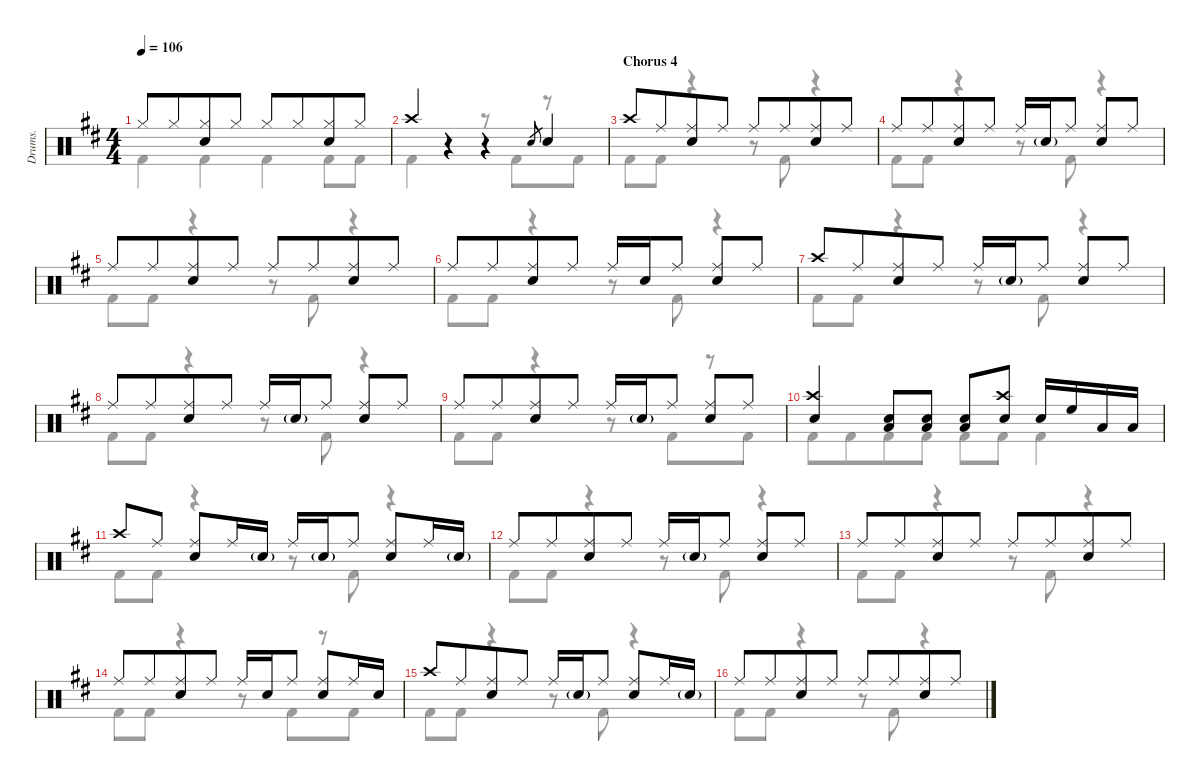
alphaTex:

\defaultSystemsLayout 4
\hideDynamics
\track ("Drumkit" "Drums.") {defaultSystemsLayout 4 instrument percussion}
\staff {score}
\articulation defaults
\voice
\ts (4 4)
\tempo 106
\clef neutral
\ks d "Hi-Hat (closed)"{acc forcenatural}.8{dy mf} "Hi-Hat (closed)"{acc forcenatural}.8{beam merge}
("Hi-Hat (closed)"{acc forcenatural} "Snare (hit) 2"{acc forcenatural}).8 "Hi-Hat (closed)"{acc forcenatural}.8 "Hi-Hat (closed)"{acc forcenatural}.8 "Hi-Hat (closed)"{acc forcenatural}.8{beam merge} ("Hi-Hat (closed)"{acc forcenatural} "Snare (hit) 2"{acc forcenatural}).8 "Hi-Hat (closed)"{acc forcenatural}.8 |
"Crash high (hit)"{acc forcenatural}.4 r.4 r.4 "Snare (hit) 2"{acc forcenatural}.8{gr} "Snare (hit) 2"{acc forcenatural}.4 |
\section ("" "Chorus 4")
"Crash high (hit)"{acc forcenatural}.8 "Ride (middle)"{acc forcenatural}.8{beam merge} ("Ride (middle)"{acc forcenatural} "Snare (hit) 2"{acc forcenatural}).8 "Ride (middle)"{acc forcenatural}.8 "Ride (middle)"{acc forcenatural}.8 "Ride (middle)"{acc forcenatural}.8{beam merge} ("Ride (middle)"{acc forcenatural} "Snare (hit) 2"{acc forcenatural}).8 "Ride (middle)"{acc forcenatural}.8 |
"Ride (middle)"{acc forcenatural}.8 "Ride (middle)"{acc forcenatural}.8{beam merge} ("Ride (middle)"{acc forcenatural} "Snare (hit) 2"{acc forcenatural}).8 "Ride (middle)"{acc forcenatural}.8 "Ride (middle)"{acc forcenatural}.16 "Snare (hit) 2"{g acc forcenatural}.16 "Ride (middle)"{acc forcenatural}.8 ("Ride (middle)"{acc forcenatural} "Snare (hit) 2"{acc forcenatural}).8 "Ride (middle)"{acc forcenatural}.8 |
"Ride (middle)"{acc forcenatural}.8 "Ride (middle)"{acc forcenatural}.8{beam merge} ("Ride (middle)"{acc forcenatural} "Snare (hit) 2"{acc forcenatural}).8 "Ride (middle)"{acc forcenatural}.8 "Ride (middle)"{acc forcenatural}.8 "Ride (middle)"{acc forcenatural}.8{beam merge} ("Ride (middle)"{acc forcenatural} "Snare (hit) 2"{acc forcenatural}).8 "Ride (middle)"{acc forcenatural}.8 |
"Ride (middle)"{acc forcenatural}.8 "Ride (middle)"{acc forcenatural}.8{beam merge} ("Ride (middle)"{acc forcenatural} "Snare (hit) 2"{acc forcenatural}).8 "Ride (middle)"{acc forcenatural}.8 "Ride (middle)"{acc forcenatural}.16 "Snare (hit) 2"{acc forcenatural}.16 "Ride (middle)"{acc forcenatural}.8 ("Ride (middle)"{acc forcenatural} "Snare (hit) 2"{acc forcenatural}).8 "Ride (middle)"{acc forcenatural}.8 |
"Crash high (hit)"{acc forcenatural}.8 "Ride (middle)"{acc forcenatural}.8{beam merge} ("Ride (middle)"{acc forcenatural} "Snare (hit) 2"{acc forcenatural}).8 "Ride (middle)"{acc forcenatural}.8 "Ride (middle)"{acc forcenatural}.16 "Snare (hit) 2"{g acc forcenatural}.16 "Ride (middle)"{acc forcenatural}.8 ("Ride (middle)"{acc forcenatural} "Snare (hit) 2"{acc forcenatural}).8 "Ride (middle)"{acc forcenatural}.8 |
"Ride (middle)"{acc forcenatural}.8 "Ride (middle)"{acc forcenatural}.8{beam merge} ("Ride (middle)"{acc forcenatural} "Snare (hit) 2"{acc forcenatural}).8 "Ride (middle)"{acc forcenatural}.8 "Ride (middle)"{acc forcenatural}.16 "Snare (hit) 2"{g acc forcenatural}.16 "Ride (middle)"{acc forcenatural}.8 ("Ride (middle)"{acc forcenatural} "Snare (hit) 2"{acc forcenatural}).8 "Ride (middle)"{acc forcenatural}.8 |
"Ride (middle)"{acc forcenatural}.8 "Ride (middle)"{acc forcenatural}.8{beam merge} ("Ride (middle)"{acc forcenatural} "Snare (hit) 2"{acc forcenatural}).8 "Ride (middle)"{acc forcenatural}.8 "Ride (middle)"{acc forcenatural}.16 "Snare (hit) 2"{g acc forcenatural}.16 "Ride (middle)"{acc forcenatural}.8 ("Ride (middle)"{acc forcenatural} "Snare (hit) 2"{acc forcenatural}).8 "Ride (middle)"{acc forcenatural}.8 |
("Crash high (hit)"{acc forcenatural} "Snare (hit) 2"{acc forcenatural}).4 ("Snare (hit) 2"{acc forcenatural} "Low Tom (hit)"{acc forcenatural}).8 ("Snare (hit) 2"{acc forcenatural} "Low Tom (hit)"{acc forcenatural}).8 ("Snare (hit) 2"{acc forcenatural} "Low Tom (hit)"{acc forcenatural}).8 ("Snare (hit) 2"{acc forcenatural} "Crash high (hit)"{acc forcenatural}).8 "Snare (hit) 2"{acc forcenatural}.16 "High Floor Tom (hit)"{acc forcenatural}.16 "Low Tom (hit)"{acc forcenatural}.16 "Low Tom (hit)"{acc forcenatural}.16 |
"Crash high (hit)"{acc forcenatural}.8 "Ride (middle)"{acc forcenatural}.8 ("Ride (middle)"{acc forcenatural} "Snare (hit) 2"{acc forcenatural}).8 "Ride (middle)"{acc forcenatural}.16 "Snare (hit) 2"{g acc forcenatural}.16 "Ride (middle)"{acc forcenatural}.16 "Snare (hit) 2"{g acc forcenatural}.16 "Ride (middle)"{acc forcenatural}.8 ("Ride (middle)"{acc forcenatural} "Snare (hit) 2"{acc forcenatural}).8 "Ride (middle)"{acc forcenatural}.16 "Snare (hit) 2"{g acc forcenatural}.16 |
"Ride (middle)"{acc forcenatural}.8 "Ride (middle)"{acc forcenatural}.8{beam merge} ("Ride (middle)"{acc forcenatural} "Snare (hit) 2"{acc forcenatural}).8 "Ride (middle)"{acc forcenatural}.8 "Ride (middle)"{acc forcenatural}.16 "Snare (hit) 2"{g acc forcenatural}.16 "Ride (middle)"{acc forcenatural}.8 ("Ride (middle)"{acc forcenatural} "Snare (hit) 2"{acc forcenatural}).8 "Ride (middle)"{acc forcenatural}.8 |
"Ride (middle)"{acc forcenatural}.8 "Ride (middle)"{acc forcenatural}.8{beam merge} ("Ride (middle)"{acc forcenatural} "Snare (hit) 2"{acc forcenatural}).8 "Ride (middle)"{acc forcenatural}.8 "Ride (middle)"{acc forcenatural}.8 "Ride (middle)"{acc forcenatural}.8{beam merge} ("Ride (middle)"{acc forcenatural} "Snare (hit) 2"{acc forcenatural}).8 "Ride (middle)"{acc forcenatural}.8 |
"Ride (middle)"{acc forcenatural}.8 "Ride (middle)"{acc forcenatural}.8{beam merge} ("Ride (middle)"{acc forcenatural} "Snare (hit) 2"{acc forcenatural}).8 "Ride (middle)"{acc forcenatural}.8 "Ride (middle)"{acc forcenatural}.16 "Snare (hit) 2"{acc forcenatural}.16 "Ride (middle)"{acc forcenatural}.8 ("Ride (middle)"{acc forcenatural} "Snare (hit) 2"{acc forcenatural}).8 "Ride (middle)"{acc forcenatural}.16 "Snare (hit) 2"{acc forcenatural}.16 |
"Crash high (hit)"{acc forcenatural}.8 "Ride (middle)"{acc forcenatural}.8{beam merge} ("Ride (middle)"{acc forcenatural} "Snare (hit) 2"{acc forcenatural}).8 "Ride (middle)"{acc forcenatural}.8 "Ride (middle)"{acc forcenatural}.16 "Snare (hit) 2"{g acc forcenatural}.16 "Ride (middle)"{acc forcenatural}.8 ("Ride (middle)"{acc forcenatural} "Snare (hit) 2"{acc forcenatural}).8 "Ride (middle)"{acc forcenatural}.16 "Snare (hit) 2"{g acc forcenatural}.16 |
"Ride (middle)"{acc forcenatural}.8 "Ride (middle)"{acc forcenatural}.8{beam merge} ("Ride (middle)"{acc forcenatural} "Snare (hit) 2"{acc forcenatural}).8 "Ride (middle)"{acc forcenatural}.8 "Ride (middle)"{acc forcenatural}.8 "Ride (middle)"{acc forcenatural}.8{beam merge} ("Ride (middle)"{acc forcenatural} "Snare (hit) 2"{acc forcenatural}).8 "Ride (middle)"{acc forcenatural}.8
\voice
\clef neutral
\ottava regular
\simile none
\ks d "Kick (hit) 2"{acc forcenatural}.4{dy mf} "Kick (hit) 2"{acc forcenatural}.4 "Kick (hit) 2"{acc forcenatural}.4 "Kick (hit) 2"{acc forcenatural}.8 "Kick (hit) 2"{acc forcenatural}.8
|
"Kick (hit) 2"{acc forcenatural}.4 r.4 r.8 "Kick (hit) 2"{acc forcenatural}.8{beam merge} r.8{beam merge} "Kick (hit) 2"{acc forcenatural}.8 |
"Kick (hit) 2"{acc forcenatural}.8 "Kick (hit) 2"{acc forcenatural}.8 r.4 r.8 "Kick (hit) 2"{acc forcenatural}.8 r.4 |
"Kick (hit) 2"{acc forcenatural}.8 "Kick (hit) 2"{acc forcenatural}.8 r.4 r.8 "Kick (hit) 2"{acc forcenatural}.8 r.4 |
"Kick (hit) 2"{acc forcenatural}.8 "Kick (hit) 2"{acc forcenatural}.8 r.4 r.8 "Kick (hit) 2"{acc forcenatural}.8 r.4 |
"Kick (hit) 2"{acc forcenatural}.8 "Kick (hit) 2"{acc forcenatural}.8 r.4 r.8 "Kick (hit) 2"{acc forcenatural}.8 r.4 |
"Kick (hit) 2"{acc forcenatural}.8 "Kick (hit) 2"{acc forcenatural}.8 r.4 r.8 "Kick (hit) 2"{acc forcenatural}.8 r.4 |
"Kick (hit) 2"{acc forcenatural}.8 "Kick (hit) 2"{acc forcenatural}.8 r.4 r.8 "Kick (hit) 2"{acc forcenatural}.8 r.4 |
"Kick (hit) 2"{acc forcenatural}.8 "Kick (hit) 2"{acc forcenatural}.8 r.4 r.8 "Kick (hit) 2"{acc forcenatural}.8{beam merge} r.8{beam merge} "Kick (hit) 2"{acc forcenatural}.8 |
"Kick (hit) 2"{acc forcenatural}.8{beam merge} "Kick (hit) 2"{acc forcenatural}.8{beam merge} "Kick (hit) 2"{acc forcenatural}.8{beam merge} "Kick (hit) 2"{acc forcenatural}.8 "Kick (hit) 2"{acc forcenatural}.8{beam merge} "Kick (hit) 2"{acc forcenatural}.8{beam merge} "Kick (hit) 2"{acc forcenatural}.4{beam merge} |
"Kick (hit) 2"{acc forcenatural}.8 "Kick (hit) 2"{acc forcenatural}.8 r.4 r.8 "Kick (hit) 2"{acc forcenatural}.8 r.4 |
"Kick (hit) 2"{acc forcenatural}.8 "Kick (hit) 2"{acc forcenatural}.8 r.4 r.8 "Kick (hit) 2"{acc forcenatural}.8 r.4 |
"Kick (hit) 2"{acc forcenatural}.8 "Kick (hit) 2"{acc forcenatural}.8 r.4 r.8 "Kick (hit) 2"{acc forcenatural}.8 r.4 |
"Kick (hit) 2"{acc forcenatural}.8 "Kick (hit) 2"{acc forcenatural}.8 r.4 r.8 "Kick (hit) 2"{acc forcenatural}.8{beam merge} r.8{beam merge} "Kick (hit) 2"{acc forcenatural}.8 |
"Kick (hit) 2"{acc forcenatural}.8 "Kick (hit) 2"{acc forcenatural}.8 r.4 r.8 "Kick (hit) 2"{acc forcenatural}.8 r.4 |
"Kick (hit) 2"{acc forcenatural}.8 "Kick (hit) 2"{acc forcenatural}.8 r.4 r.8 "Kick (hit) 2"{acc forcenatural}.8 r.4
